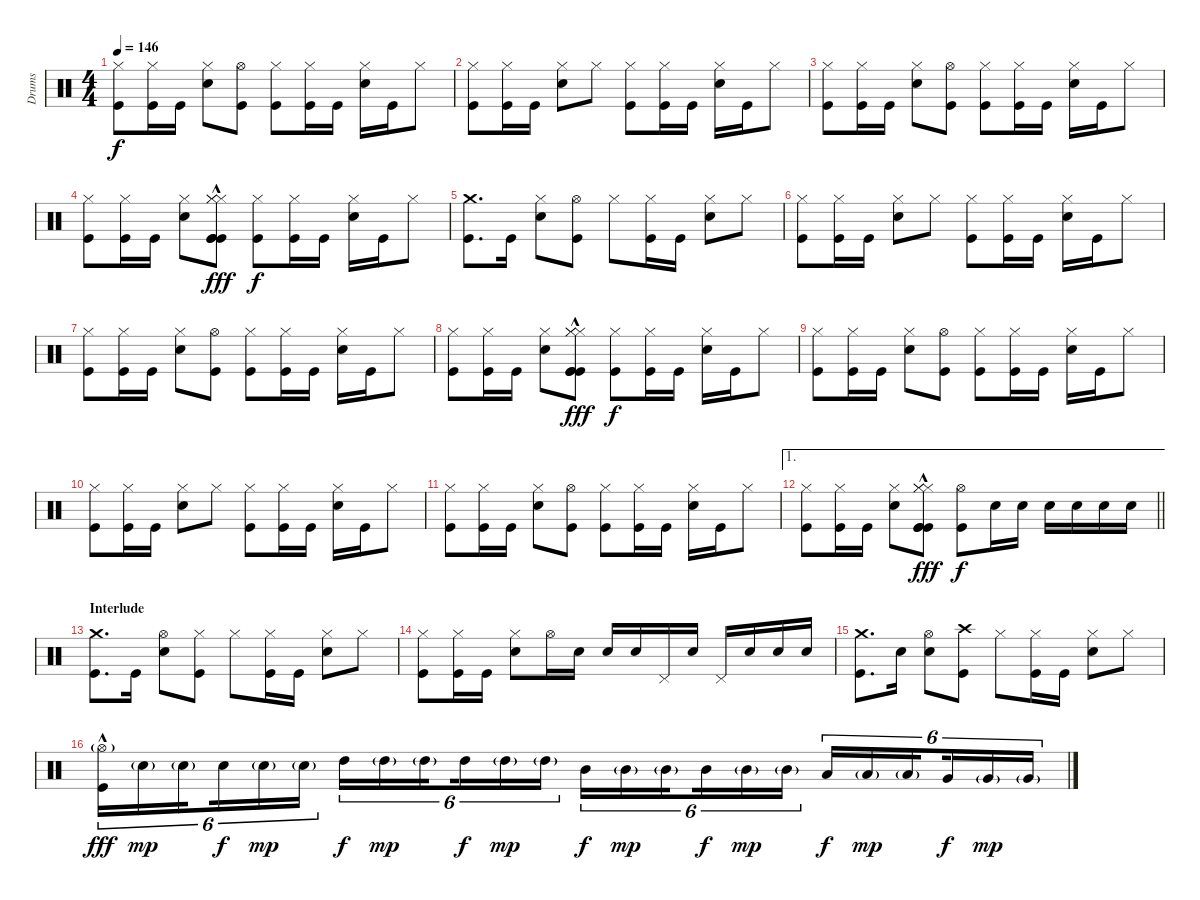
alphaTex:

\track ("Drums" "Drums") {instrument percussion}
\staff {score}
\articulation defaults
\ts (4 4)
\tempo 146
\clef neutral
\ks c
("Hi-Hat (closed)" "Kick (hit)").8{dy f} ("Hi-Hat (closed)" "Kick (hit)").16 "Kick (hit)".16 ("Hi-Hat (closed)" "Electric Snare (hit)").8 ("Hi-Hat (open)" "Kick (hit)").8 ("Hi-Hat (closed)" "Kick (hit)").8 ("Hi-Hat (closed)" "Kick (hit)").16 "Kick (hit)".16 ("Hi-Hat (closed)" "Electric Snare (hit)").16 "Kick (hit)".16 "Hi-Hat (closed)".8 |
("Hi-Hat (closed)" "Kick (hit)").8 ("Hi-Hat (closed)" "Kick (hit)").16 "Kick (hit)".16 ("Hi-Hat (closed)" "Electric Snare (hit)").8 "Hi-Hat (closed)".8 ("Hi-Hat (closed)" "Kick (hit)").8 ("Hi-Hat (closed)" "Kick (hit)").16 "Kick (hit)".16 ("Hi-Hat (closed)" "Electric Snare (hit)").16 "Kick (hit)".16 "Hi-Hat (closed)".8 |
("Hi-Hat (closed)" "Kick (hit)").8 ("Hi-Hat (closed)" "Kick (hit)").16 "Kick (hit)".16 ("Hi-Hat (closed)" "Electric Snare (hit)").8 ("Hi-Hat (open)" "Kick (hit)").8 ("Hi-Hat (closed)" "Kick (hit)").8 ("Hi-Hat (closed)" "Kick (hit)").16 "Kick (hit)".16 ("Hi-Hat (closed)" "Electric Snare (hit)").16 "Kick (hit)".16 "Hi-Hat (closed)".8 |
("Hi-Hat (closed)" "Kick (hit)").8 ("Hi-Hat (closed)" "Kick (hit)").16 "Kick (hit)".16 ("Hi-Hat (closed)" "Electric Snare (hit)").8 ("Hi-Hat (closed)"{hac} "Hi-Hat (closed)"{hac} "Hi-Hat (closed)"{hac} "Kick (hit)"{hac} "Kick (hit)"{hac} "Kick (hit)"{hac}).8{dy fff} ("Hi-Hat (closed)" "Kick (hit)").8{dy f} ("Hi-Hat (closed)" "Kick (hit)").16 "Kick (hit)".16 ("Hi-Hat (closed)" "Electric Snare (hit)").16 "Kick (hit)".16 "Hi-Hat (closed)".8 |
("Crash medium (hit)" "Kick (hit)").8{d} "Kick (hit)".16 ("Hi-Hat (closed)" "Electric Snare (hit)").8 ("Hi-Hat (open)" "Kick (hit)").8 "Hi-Hat (closed)".8 ("Hi-Hat (closed)" "Kick (hit)").16 "Kick (hit)".16 ("Hi-Hat (closed)" "Electric Snare (hit)").8 "Hi-Hat (closed)".8 |
("Hi-Hat (closed)" "Kick (hit)").8 ("Hi-Hat (closed)" "Kick (hit)").16 "Kick (hit)".16 ("Hi-Hat (closed)" "Electric Snare (hit)").8 "Hi-Hat (closed)".8 ("Hi-Hat (closed)" "Kick (hit)").8 ("Hi-Hat (closed)" "Kick (hit)").16 "Kick (hit)".16 ("Hi-Hat (closed)" "Electric Snare (hit)").16 "Kick (hit)".16 "Hi-Hat (closed)".8 |
("Hi-Hat (closed)" "Kick (hit)").8 ("Hi-Hat (closed)" "Kick (hit)").16 "Kick (hit)".16 ("Hi-Hat (closed)" "Electric Snare (hit)").8 ("Hi-Hat (open)" "Kick (hit)").8 ("Hi-Hat (closed)" "Kick (hit)").8 ("Hi-Hat (closed)" "Kick (hit)").16 "Kick (hit)".16 ("Hi-Hat (closed)" "Electric Snare (hit)").16 "Kick (hit)".16 "Hi-Hat (closed)".8 |
("Hi-Hat (closed)" "Kick (hit)").8 ("Hi-Hat (closed)" "Kick (hit)").16 "Kick (hit)".16 ("Hi-Hat (closed)" "Electric Snare (hit)").8 ("Hi-Hat (closed)"{hac} "Hi-Hat (closed)"{hac} "Hi-Hat (closed)"{hac} "Kick (hit)"{hac} "Kick (hit)"{hac} "Kick (hit)"{hac}).8{dy fff} ("Hi-Hat (closed)" "Kick (hit)").8{dy f} ("Hi-Hat (closed)" "Kick (hit)").16 "Kick (hit)".16 ("Hi-Hat (closed)" "Electric Snare (hit)").16 "Kick (hit)".16 "Hi-Hat (closed)".8 |
("Hi-Hat (closed)" "Kick (hit)").8 ("Hi-Hat (closed)" "Kick (hit)").16 "Kick (hit)".16 ("Hi-Hat (closed)" "Electric Snare (hit)").8 ("Hi-Hat (open)" "Kick (hit)").8 ("Hi-Hat (closed)" "Kick (hit)").8 ("Hi-Hat (closed)" "Kick (hit)").16 "Kick (hit)".16 ("Hi-Hat (closed)" "Electric Snare (hit)").16 "Kick (hit)".16 "Hi-Hat (closed)".8 |
("Hi-Hat (closed)" "Kick (hit)").8 ("Hi-Hat (closed)" "Kick (hit)").16 "Kick (hit)".16 ("Hi-Hat (closed)" "Electric Snare (hit)").8 "Hi-Hat (closed)".8 ("Hi-Hat (closed)" "Kick (hit)").8 ("Hi-Hat (closed)" "Kick (hit)").16 "Kick (hit)".16 ("Hi-Hat (closed)" "Electric Snare (hit)").16 "Kick (hit)".16 "Hi-Hat (closed)".8 |
("Hi-Hat (closed)" "Kick (hit)").8 ("Hi-Hat (closed)" "Kick (hit)").16 "Kick (hit)".16 ("Hi-Hat (closed)" "Electric Snare (hit)").8 ("Hi-Hat (open)" "Kick (hit)").8 ("Hi-Hat (closed)" "Kick (hit)").8 ("Hi-Hat (closed)" "Kick (hit)").16 "Kick (hit)".16 ("Hi-Hat (closed)" "Electric Snare (hit)").16 "Kick (hit)".16 "Hi-Hat (closed)".8 |
\ae 1
\barLineRight lightlight
("Hi-Hat (closed)" "Kick (hit)").8 ("Hi-Hat (closed)" "Kick (hit)").16 "Kick (hit)".16 ("Hi-Hat (closed)" "Electric Snare (hit)").8 ("Hi-Hat (closed)"{hac} "Hi-Hat (closed)"{hac} "Hi-Hat (closed)"{hac} "Kick (hit)"{hac} "Kick (hit)"{hac} "Kick (hit)"{hac}).8{dy fff} ("Hi-Hat (open)" "Kick (hit)").8{dy f} "Electric Snare (hit)".16 "Electric Snare (hit)".16 "Electric Snare (hit)".16 "Electric Snare (hit)".16 "Electric Snare (hit)".16 "Electric Snare (hit)".16 |
\section ("" "Interlude")
("Crash medium (hit)" "Kick (hit)").8{d} "Kick (hit)".16 ("Hi-Hat (open)" "Electric Snare (hit)").8 ("Hi-Hat (closed)" "Kick (hit)").8 "Hi-Hat (closed)".8 ("Hi-Hat (closed)" "Kick (hit)").16 "Kick (hit)".16 ("Hi-Hat (closed)" "Electric Snare (hit)").8 "Hi-Hat (closed)".8 |
("Hi-Hat (closed)" "Kick (hit)").8 ("Hi-Hat (closed)" "Kick (hit)").16 "Kick (hit)".16 ("Hi-Hat (closed)" "Electric Snare (hit)").8 "Hi-Hat (open)".16 "Electric Snare (hit)".16 "Electric Snare (hit)".16 "Electric Snare (hit)".16 "Pedal Hi-Hat (hit)".16 "Electric Snare (hit)".16 "Pedal Hi-Hat (hit)".16 "Electric Snare (hit)".16 "Electric Snare (hit)".16 "Electric Snare (hit)".16 |
("Crash medium (hit)" "Kick (hit)").8{d} "Electric Snare (hit)".16 ("Hi-Hat (open)" "Electric Snare (hit)").8 ("Crash high (hit)" "Kick (hit)").8 "Hi-Hat (closed)".8 ("Hi-Hat (closed)" "Kick (hit)").16 "Kick (hit)".16 ("Hi-Hat (closed)" "Electric Snare (hit)").8 "Hi-Hat (closed)".8 |
("Hi-Hat (open)"{g} "Kick (hit)"{hac}).16{tu (6 4) dy fff} "Electric Snare (hit)"{g}.16{tu (6 4) dy mp} "Electric Snare (hit)"{g}.16{tu (6 4) beam splitsecondary} "Electric Snare (hit)".16{tu (6 4) dy f} "Electric Snare (hit)"{g}.16{tu (6 4) dy mp} "Electric Snare (hit)"{g}.16{tu (6 4)} "High Tom (hit)".16{tu (6 4) dy f} "High Tom (hit)"{g}.16{tu (6 4) dy mp} "High Tom (hit)"{g}.16{tu (6 4) beam splitsecondary} "High Tom (hit)".16{tu (6 4) dy f} "High Tom (hit)"{g}.16{tu (6 4) dy mp} "High Tom (hit)"{g}.16{tu (6 4)} "Mid Tom (hit)".16{tu (6 4) dy f} "Mid Tom (hit)"{g}.16{tu (6 4) dy mp} "Mid Tom (hit)"{g}.16{tu (6 4) beam splitsecondary} "Mid Tom (hit)".16{tu (6 4) dy f} "Mid Tom (hit)"{g}.16{tu (6 4) dy mp} "Mid Tom (hit)"{g}.16{tu (6 4)} "Low Tom (hit)".16{tu (6 4) dy f} "Low Tom (hit)"{g}.16{tu (6 4) dy mp} "Low Tom (hit)"{g}.16{tu (6 4) beam splitsecondary} "Very Low Tom (hit)".16{tu (6 4) dy f} "Very Low Tom (hit)"{g}.16{tu (6 4) dy mp} "Very Low Tom (hit)"{g}.16{tu (6 4)}
